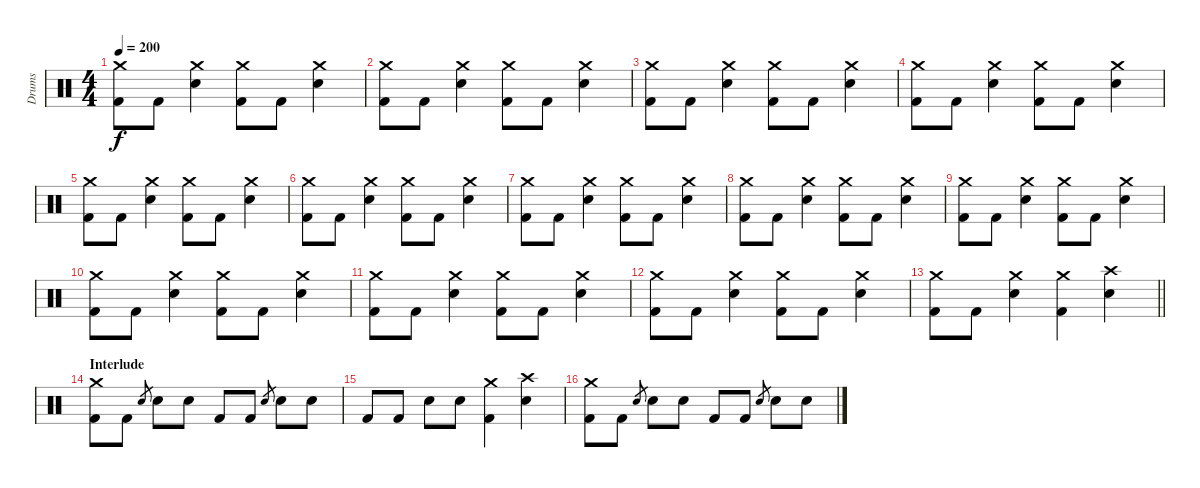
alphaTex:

\track ("Drums" "Drums") {instrument percussion}
\staff {score}
\articulation defaults
\ts (4 4)
\tempo 200
\clef neutral
\ks c
("Crash medium (hit)" "Kick (hit) 2").8{dy f} "Kick (hit) 2".8 ("Crash medium (hit)" "Electric Snare (hit)").4 ("Crash medium (hit)" "Kick (hit) 2").8 "Kick (hit) 2".8 ("Crash medium (hit)" "Electric Snare (hit)").4 |
("Crash medium (hit)" "Kick (hit) 2").8 "Kick (hit) 2".8 ("Crash medium (hit)" "Electric Snare (hit)").4 ("Crash medium (hit)" "Kick (hit) 2").8 "Kick (hit) 2".8 ("Crash medium (hit)" "Electric Snare (hit)").4 |
("Crash medium (hit)" "Kick (hit) 2").8 "Kick (hit) 2".8 ("Crash medium (hit)" "Electric Snare (hit)").4 ("Crash medium (hit)" "Kick (hit) 2").8 "Kick (hit) 2".8 ("Crash medium (hit)" "Electric Snare (hit)").4 |
("Crash medium (hit)" "Kick (hit) 2").8 "Kick (hit) 2".8 ("Crash medium (hit)" "Electric Snare (hit)").4 ("Crash medium (hit)" "Kick (hit) 2").8 "Kick (hit) 2".8 ("Crash medium (hit)" "Electric Snare (hit)").4 |
("Crash medium (hit)" "Kick (hit) 2").8 "Kick (hit) 2".8 ("Crash medium (hit)" "Electric Snare (hit)").4 ("Crash medium (hit)" "Kick (hit) 2").8 "Kick (hit) 2".8 ("Crash medium (hit)" "Electric Snare (hit)").4 |
("Crash medium (hit)" "Kick (hit) 2").8 "Kick (hit) 2".8 ("Crash medium (hit)" "Electric Snare (hit)").4 ("Crash medium (hit)" "Kick (hit) 2").8 "Kick (hit) 2".8 ("Crash medium (hit)" "Electric Snare (hit)").4 |
("Crash medium (hit)" "Kick (hit) 2").8 "Kick (hit) 2".8 ("Crash medium (hit)" "Electric Snare (hit)").4 ("Crash medium (hit)" "Kick (hit) 2").8 "Kick (hit) 2".8 ("Crash medium (hit)" "Electric Snare (hit)").4 |
("Crash medium (hit)" "Kick (hit) 2").8 "Kick (hit) 2".8 ("Crash medium (hit)" "Electric Snare (hit)").4 ("Crash medium (hit)" "Kick (hit) 2").8 "Kick (hit) 2".8 ("Crash medium (hit)" "Electric Snare (hit)").4 |
("Crash medium (hit)" "Kick (hit) 2").8 "Kick (hit) 2".8 ("Crash medium (hit)" "Electric Snare (hit)").4 ("Crash medium (hit)" "Kick (hit) 2").8 "Kick (hit) 2".8 ("Crash medium (hit)" "Electric Snare (hit)").4 |
("Crash medium (hit)" "Kick (hit) 2").8 "Kick (hit) 2".8 ("Crash medium (hit)" "Electric Snare (hit)").4 ("Crash medium (hit)" "Kick (hit) 2").8 "Kick (hit) 2".8 ("Crash medium (hit)" "Electric Snare (hit)").4 |
("Crash medium (hit)" "Kick (hit) 2").8 "Kick (hit) 2".8 ("Crash medium (hit)" "Electric Snare (hit)").4 ("Crash medium (hit)" "Kick (hit) 2").8 "Kick (hit) 2".8 ("Crash medium (hit)" "Electric Snare (hit)").4 |
("Crash medium (hit)" "Kick (hit) 2").8 "Kick (hit) 2".8 ("Crash medium (hit)" "Electric Snare (hit)").4 ("Crash medium (hit)" "Kick (hit) 2").8 "Kick (hit) 2".8 ("Crash medium (hit)" "Electric Snare (hit)").4 |
\barLineRight lightlight
("Crash medium (hit)" "Kick (hit) 2").8 "Kick (hit) 2".8 ("Crash medium (hit)" "Electric Snare (hit)").4 ("Crash medium (hit)" "Kick (hit) 2").4 ("Crash high (hit)" "Electric Snare (hit)").4 |
\section ("" "Interlude")
("Crash medium (hit)" "Kick (hit) 2").8 "Kick (hit) 2".8 "Electric Snare (hit)".8{gr} "Electric Snare (hit)".8 "Electric Snare (hit)".8 "Kick (hit) 2".8 "Kick (hit) 2".8 "Electric Snare (hit)".8{gr} "Electric Snare (hit)".8 "Electric Snare (hit)".8 |
"Kick (hit) 2".8 "Kick (hit) 2".8 "Electric Snare (hit)".8 "Electric Snare (hit)".8 ("Crash medium (hit)" "Kick (hit) 2").4 ("Crash high (hit)" "Electric Snare (hit)").4 |
("Crash medium (hit)" "Kick (hit) 2").8 "Kick (hit) 2".8 "Electric Snare (hit)".8{gr} "Electric Snare (hit)".8 "Electric Snare (hit)".8 "Kick (hit) 2".8 "Kick (hit) 2".8 "Electric Snare (hit)".8{gr} "Electric Snare (hit)".8 "Electric Snare (hit)".8
